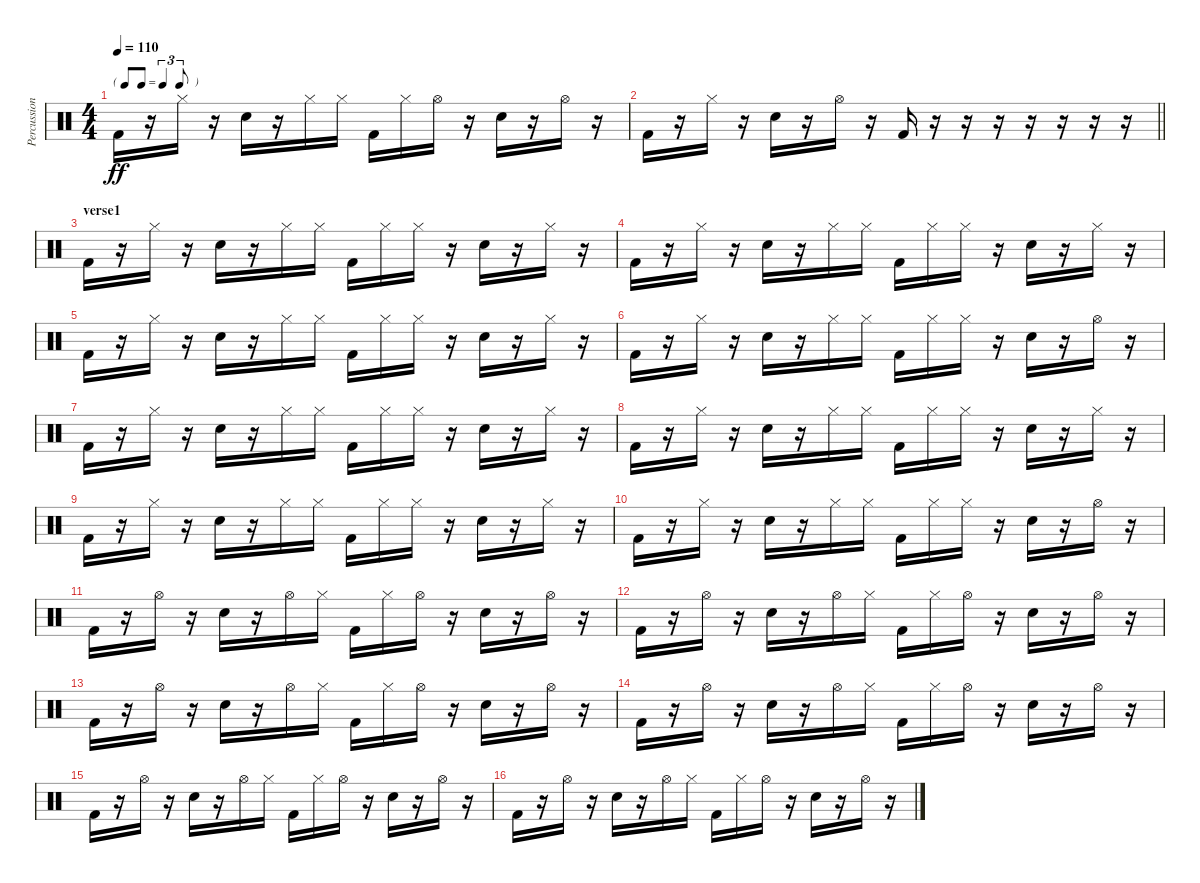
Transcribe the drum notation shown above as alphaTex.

\track ("Percussion" "Percussion") {instrument percussion}
\staff {score}
\articulation defaults
\ts (4 4)
\tf triplet8th
\tempo 110
\clef neutral
\ks c "Kick (hit) 2".16{dy ff}
r.16 "Hi-Hat (closed)".16 r.16 "Electric Snare (hit)".16 r.16 "Hi-Hat (closed)".16 "Hi-Hat (closed)".16 "Kick (hit) 2".16 "Hi-Hat (closed)".16 "Hi-Hat (open)".16 r.16 "Electric Snare (hit)".16 r.16 "Hi-Hat (open)".16 r.16 |
\barLineRight lightlight "Kick (hit) 2".16
r.16 "Hi-Hat (closed)".16 r.16 "Electric Snare (hit)".16 r.16 "Hi-Hat (open)".16 r.16 "Kick (hit) 2".16 r.16 r.16 r.16 r.16 r.16 r.16 r.16 |
\section ("" "verse1")
"Kick (hit) 2".16 r.16 "Hi-Hat (closed)".16 r.16 "Electric Snare (hit)".16 r.16 "Hi-Hat (closed)".16 "Hi-Hat (closed)".16 "Kick (hit) 2".16 "Hi-Hat (closed)".16 "Hi-Hat (closed)".16 r.16 "Electric Snare (hit)".16 r.16 "Hi-Hat (closed)".16 r.16 |
"Kick (hit) 2".16 r.16 "Hi-Hat (closed)".16 r.16 "Electric Snare (hit)".16 r.16 "Hi-Hat (closed)".16 "Hi-Hat (closed)".16 "Kick (hit) 2".16 "Hi-Hat (closed)".16 "Hi-Hat (closed)".16 r.16 "Electric Snare (hit)".16 r.16 "Hi-Hat (closed)".16 r.16 |
"Kick (hit) 2".16 r.16 "Hi-Hat (closed)".16 r.16 "Electric Snare (hit)".16 r.16 "Hi-Hat (closed)".16 "Hi-Hat (closed)".16 "Kick (hit) 2".16 "Hi-Hat (closed)".16 "Hi-Hat (closed)".16 r.16 "Electric Snare (hit)".16 r.16 "Hi-Hat (closed)".16 r.16 |
"Kick (hit) 2".16 r.16 "Hi-Hat (closed)".16 r.16 "Electric Snare (hit)".16 r.16 "Hi-Hat (closed)".16 "Hi-Hat (closed)".16 "Kick (hit) 2".16 "Hi-Hat (closed)".16 "Hi-Hat (closed)".16 r.16 "Electric Snare (hit)".16 r.16 "Hi-Hat (open)".16 r.16 |
"Kick (hit) 2".16 r.16 "Hi-Hat (closed)".16 r.16 "Electric Snare (hit)".16 r.16 "Hi-Hat (closed)".16 "Hi-Hat (closed)".16 "Kick (hit) 2".16 "Hi-Hat (closed)".16 "Hi-Hat (closed)".16 r.16 "Electric Snare (hit)".16 r.16 "Hi-Hat (closed)".16 r.16 |
"Kick (hit) 2".16 r.16 "Hi-Hat (closed)".16 r.16 "Electric Snare (hit)".16 r.16 "Hi-Hat (closed)".16 "Hi-Hat (closed)".16 "Kick (hit) 2".16 "Hi-Hat (closed)".16 "Hi-Hat (closed)".16 r.16 "Electric Snare (hit)".16 r.16 "Hi-Hat (closed)".16 r.16 |
"Kick (hit) 2".16 r.16 "Hi-Hat (closed)".16 r.16 "Electric Snare (hit)".16 r.16 "Hi-Hat (closed)".16 "Hi-Hat (closed)".16 "Kick (hit) 2".16 "Hi-Hat (closed)".16 "Hi-Hat (closed)".16 r.16 "Electric Snare (hit)".16 r.16 "Hi-Hat (closed)".16 r.16 |
"Kick (hit) 2".16 r.16 "Hi-Hat (closed)".16 r.16 "Electric Snare (hit)".16 r.16 "Hi-Hat (closed)".16 "Hi-Hat (closed)".16 "Kick (hit) 2".16 "Hi-Hat (closed)".16 "Hi-Hat (closed)".16 r.16 "Electric Snare (hit)".16 r.16 "Hi-Hat (open)".16 r.16 |
"Kick (hit) 2".16 r.16 "Hi-Hat (open)".16 r.16 "Electric Snare (hit)".16 r.16 "Hi-Hat (open)".16 "Hi-Hat (closed)".16 "Kick (hit) 2".16 "Hi-Hat (closed)".16 "Hi-Hat (open)".16 r.16 "Electric Snare (hit)".16 r.16 "Hi-Hat (open)".16 r.16 |
"Kick (hit) 2".16 r.16 "Hi-Hat (open)".16 r.16 "Electric Snare (hit)".16 r.16 "Hi-Hat (open)".16 "Hi-Hat (closed)".16 "Kick (hit) 2".16 "Hi-Hat (closed)".16 "Hi-Hat (open)".16 r.16 "Electric Snare (hit)".16 r.16 "Hi-Hat (open)".16 r.16 |
"Kick (hit) 2".16 r.16 "Hi-Hat (open)".16 r.16 "Electric Snare (hit)".16 r.16 "Hi-Hat (open)".16 "Hi-Hat (closed)".16 "Kick (hit) 2".16 "Hi-Hat (closed)".16 "Hi-Hat (open)".16 r.16 "Electric Snare (hit)".16 r.16 "Hi-Hat (open)".16 r.16 |
"Kick (hit) 2".16 r.16 "Hi-Hat (open)".16 r.16 "Electric Snare (hit)".16 r.16 "Hi-Hat (open)".16 "Hi-Hat (closed)".16 "Kick (hit) 2".16 "Hi-Hat (closed)".16 "Hi-Hat (open)".16 r.16 "Electric Snare (hit)".16 r.16 "Hi-Hat (open)".16 r.16 |
"Kick (hit) 2".16 r.16 "Hi-Hat (open)".16 r.16 "Electric Snare (hit)".16 r.16 "Hi-Hat (open)".16 "Hi-Hat (closed)".16 "Kick (hit) 2".16 "Hi-Hat (closed)".16 "Hi-Hat (open)".16 r.16 "Electric Snare (hit)".16 r.16 "Hi-Hat (open)".16 r.16 |
"Kick (hit) 2".16 r.16 "Hi-Hat (open)".16 r.16 "Electric Snare (hit)".16 r.16 "Hi-Hat (open)".16 "Hi-Hat (closed)".16 "Kick (hit) 2".16 "Hi-Hat (closed)".16 "Hi-Hat (open)".16 r.16 "Electric Snare (hit)".16 r.16 "Hi-Hat (open)".16 r.16
